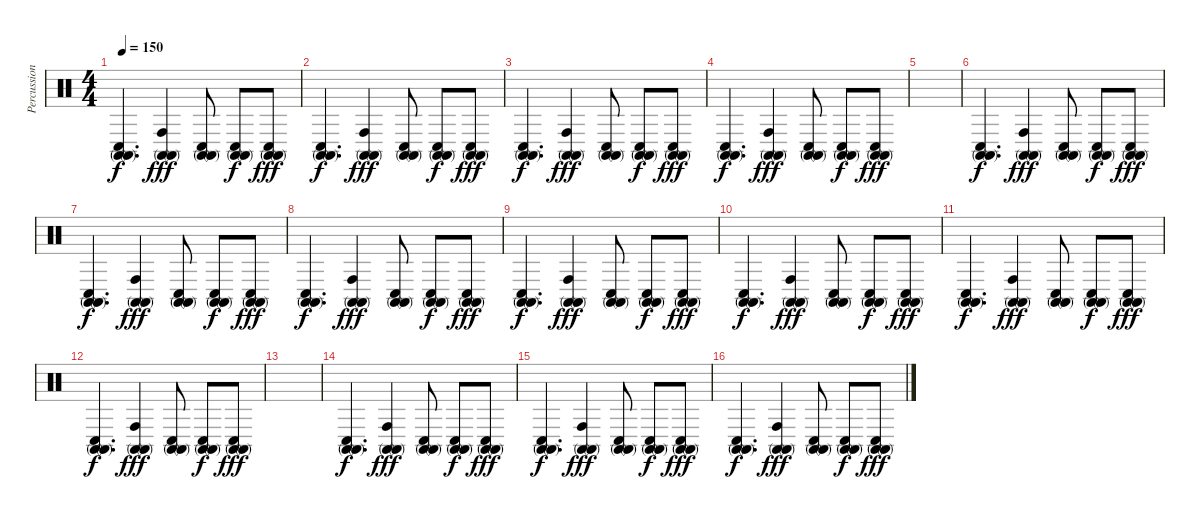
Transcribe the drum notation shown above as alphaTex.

\track ("Percussion2" "Percussion") {instrument percussion}
\staff {score}
\articulation defaults
\ts (4 4)
\tempo 150
\clef neutral
\ks aminor
("Conga high (mute)" "Conga high (mute)" "Conga low (hit)").4{d dy f} ("Conga high (mute)" "Conga high (mute)" "Conga high (hit)").4{dy fff} ("Conga high (mute)" "Conga high (mute)" "Conga low (hit)").8 ("Conga high (mute)" "Conga high (mute)" "Conga low (hit)").8{dy f} ("Conga high (mute)" "Conga high (mute)" "Conga low (hit)").8{dy fff} |
("Conga high (mute)" "Conga high (mute)" "Conga low (hit)").4{d dy f} ("Conga high (mute)" "Conga high (mute)" "Conga high (hit)").4{dy fff} ("Conga high (mute)" "Conga high (mute)" "Conga low (hit)").8 ("Conga high (mute)" "Conga high (mute)" "Conga low (hit)").8{dy f} ("Conga high (mute)" "Conga high (mute)" "Conga low (hit)").8{dy fff} |
("Conga high (mute)" "Conga high (mute)" "Conga low (hit)").4{d dy f} ("Conga high (mute)" "Conga high (mute)" "Conga high (hit)").4{dy fff} ("Conga high (mute)" "Conga high (mute)" "Conga low (hit)").8 ("Conga high (mute)" "Conga high (mute)" "Conga low (hit)").8{dy f} ("Conga high (mute)" "Conga high (mute)" "Conga low (hit)").8{dy fff} |
("Conga high (mute)" "Conga high (mute)" "Conga low (hit)").4{d dy f} ("Conga high (mute)" "Conga high (mute)" "Conga high (hit)").4{dy fff} ("Conga high (mute)" "Conga high (mute)" "Conga low (hit)").8 ("Conga high (mute)" "Conga high (mute)" "Conga low (hit)").8{dy f} ("Conga high (mute)" "Conga high (mute)" "Conga low (hit)").8{dy fff} |
|
("Conga high (mute)" "Conga high (mute)" "Conga low (hit)").4{d dy f} ("Conga high (mute)" "Conga high (mute)" "Conga high (hit)").4{dy fff} ("Conga high (mute)" "Conga high (mute)" "Conga low (hit)").8 ("Conga high (mute)" "Conga high (mute)" "Conga low (hit)").8{dy f} ("Conga high (mute)" "Conga high (mute)" "Conga low (hit)").8{dy fff} |
("Conga high (mute)" "Conga high (mute)" "Conga low (hit)").4{d dy f} ("Conga high (mute)" "Conga high (mute)" "Conga high (hit)").4{dy fff} ("Conga high (mute)" "Conga high (mute)" "Conga low (hit)").8 ("Conga high (mute)" "Conga high (mute)" "Conga low (hit)").8{dy f} ("Conga high (mute)" "Conga high (mute)" "Conga low (hit)").8{dy fff} |
("Conga high (mute)" "Conga high (mute)" "Conga low (hit)").4{d dy f} ("Conga high (mute)" "Conga high (mute)" "Conga high (hit)").4{dy fff} ("Conga high (mute)" "Conga high (mute)" "Conga low (hit)").8 ("Conga high (mute)" "Conga high (mute)" "Conga low (hit)").8{dy f} ("Conga high (mute)" "Conga high (mute)" "Conga low (hit)").8{dy fff} |
("Conga high (mute)" "Conga high (mute)" "Conga low (hit)").4{d dy f} ("Conga high (mute)" "Conga high (mute)" "Conga high (hit)").4{dy fff} ("Conga high (mute)" "Conga high (mute)" "Conga low (hit)").8 ("Conga high (mute)" "Conga high (mute)" "Conga low (hit)").8{dy f} ("Conga high (mute)" "Conga high (mute)" "Conga low (hit)").8{dy fff} |
("Conga high (mute)" "Conga high (mute)" "Conga low (hit)").4{d dy f} ("Conga high (mute)" "Conga high (mute)" "Conga high (hit)").4{dy fff} ("Conga high (mute)" "Conga high (mute)" "Conga low (hit)").8 ("Conga high (mute)" "Conga high (mute)" "Conga low (hit)").8{dy f} ("Conga high (mute)" "Conga high (mute)" "Conga low (hit)").8{dy fff} |
("Conga high (mute)" "Conga high (mute)" "Conga low (hit)").4{d dy f} ("Conga high (mute)" "Conga high (mute)" "Conga high (hit)").4{dy fff} ("Conga high (mute)" "Conga high (mute)" "Conga low (hit)").8 ("Conga high (mute)" "Conga high (mute)" "Conga low (hit)").8{dy f} ("Conga high (mute)" "Conga high (mute)" "Conga low (hit)").8{dy fff} |
("Conga high (mute)" "Conga high (mute)" "Conga low (hit)").4{d dy f} ("Conga high (mute)" "Conga high (mute)" "Conga high (hit)").4{dy fff} ("Conga high (mute)" "Conga high (mute)" "Conga low (hit)").8 ("Conga high (mute)" "Conga high (mute)" "Conga low (hit)").8{dy f} ("Conga high (mute)" "Conga high (mute)" "Conga low (hit)").8{dy fff} |
|
("Conga high (mute)" "Conga high (mute)" "Conga low (hit)").4{d dy f} ("Conga high (mute)" "Conga high (mute)" "Conga high (hit)").4{dy fff} ("Conga high (mute)" "Conga high (mute)" "Conga low (hit)").8 ("Conga high (mute)" "Conga high (mute)" "Conga low (hit)").8{dy f} ("Conga high (mute)" "Conga high (mute)" "Conga low (hit)").8{dy fff} |
("Conga high (mute)" "Conga high (mute)" "Conga low (hit)").4{d dy f} ("Conga high (mute)" "Conga high (mute)" "Conga high (hit)").4{dy fff} ("Conga high (mute)" "Conga high (mute)" "Conga low (hit)").8 ("Conga high (mute)" "Conga high (mute)" "Conga low (hit)").8{dy f} ("Conga high (mute)" "Conga high (mute)" "Conga low (hit)").8{dy fff} |
("Conga high (mute)" "Conga high (mute)" "Conga low (hit)").4{d dy f} ("Conga high (mute)" "Conga high (mute)" "Conga high (hit)").4{dy fff} ("Conga high (mute)" "Conga high (mute)" "Conga low (hit)").8 ("Conga high (mute)" "Conga high (mute)" "Conga low (hit)").8{dy f} ("Conga high (mute)" "Conga high (mute)" "Conga low (hit)").8{dy fff}
